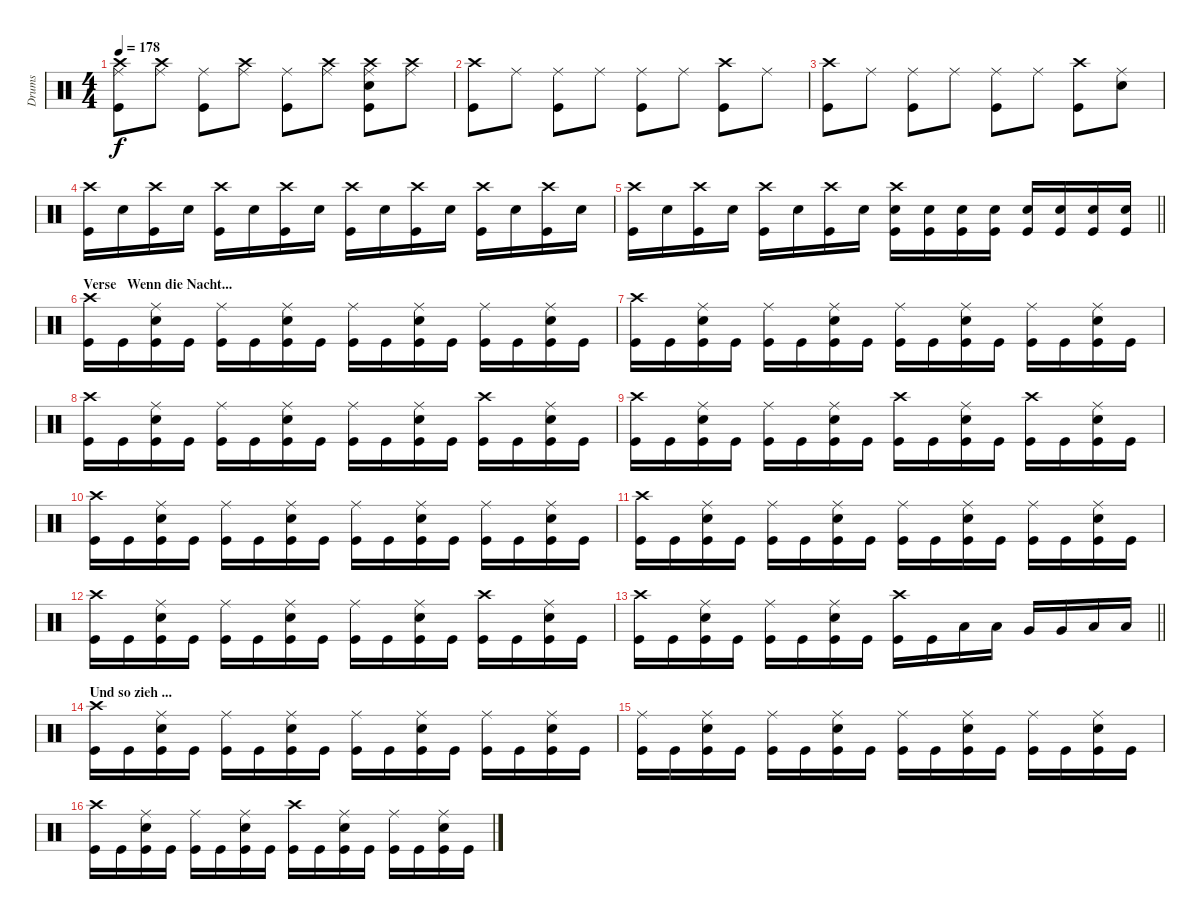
\track ("Drums" "Drums") {instrument percussion}
\staff {score}
\articulation defaults
\ts (4 4)
\tempo 178
\clef neutral
\ks c
("Crash high (hit)" "Kick (hit)" "Ride (middle)").8{dy f} ("Crash high (hit)" "Ride (middle)").8 ("Kick (hit)" "Ride (middle)").8 ("Crash high (hit)" "Ride (middle)").8 ("Kick (hit)" "Ride (middle)").8 ("Ride (middle)" "Crash high (hit)").8 ("Kick (hit)" "Ride (middle)" "Crash high (hit)" "Snare (hit) 2").8 ("Ride (middle)" "Crash high (hit)").8 |
("Kick (hit)" "Crash high (hit)").8 "Ride (middle)".8 ("Kick (hit)" "Ride (middle)").8 "Ride (middle)".8 ("Kick (hit)" "Ride (middle)").8 "Ride (middle)".8 ("Kick (hit)" "Crash high (hit)").8 "Ride (middle)".8 |
("Kick (hit)" "Crash high (hit)").8 "Ride (middle)".8 ("Kick (hit)" "Ride (middle)").8 "Ride (middle)".8 ("Kick (hit)" "Ride (middle)").8 "Ride (middle)".8 ("Kick (hit)" "Crash high (hit)").8 ("Ride (middle)" "Snare (hit) 2").8 |
("Crash high (hit)" "Kick (hit)").16 "Snare (hit) 2".16 ("Crash high (hit)" "Kick (hit)").16 "Snare (hit) 2".16 ("Crash high (hit)" "Kick (hit)").16 "Snare (hit) 2".16 ("Crash high (hit)" "Kick (hit)").16 "Snare (hit) 2".16 ("Crash high (hit)" "Kick (hit)").16 "Snare (hit) 2".16 ("Crash high (hit)" "Kick (hit)").16 "Snare (hit) 2".16 ("Crash high (hit)" "Kick (hit)").16 "Snare (hit) 2".16 ("Crash high (hit)" "Kick (hit)").16 "Snare (hit) 2".16 |
\barLineRight lightlight
("Crash high (hit)" "Kick (hit)").16 "Snare (hit) 2".16 ("Crash high (hit)" "Kick (hit)").16 "Snare (hit) 2".16 ("Crash high (hit)" "Kick (hit)").16 "Snare (hit) 2".16 ("Crash high (hit)" "Kick (hit)").16 "Snare (hit) 2".16 ("Crash high (hit)" "Kick (hit)" "Snare (hit) 2").16 ("Snare (hit) 2" "Kick (hit)").16 ("Snare (hit) 2" "Kick (hit)").16 ("Snare (hit) 2" "Kick (hit)").16 ("Snare (hit) 2" "Kick (hit)").16 ("Snare (hit) 2" "Kick (hit)").16 ("Snare (hit) 2" "Kick (hit)").16 ("Snare (hit) 2" "Kick (hit)").16 |
\section ("" "Verse   Wenn die Nacht...")
("Kick (hit)" "Crash high (hit)").16 "Kick (hit)".16 ("Kick (hit)" "Snare (hit) 2" "Ride (middle)").16 "Kick (hit)".16 ("Kick (hit)" "Ride (middle)").16 "Kick (hit)".16 ("Kick (hit)" "Snare (hit) 2" "Ride (middle)").16 "Kick (hit)".16 ("Kick (hit)" "Ride (middle)").16 "Kick (hit)".16 ("Kick (hit)" "Snare (hit) 2" "Ride (middle)").16 "Kick (hit)".16 ("Kick (hit)" "Ride (middle)").16 "Kick (hit)".16 ("Kick (hit)" "Snare (hit) 2" "Ride (middle)").16 "Kick (hit)".16 |
("Kick (hit)" "Crash high (hit)").16 "Kick (hit)".16 ("Kick (hit)" "Snare (hit) 2" "Ride (middle)").16 "Kick (hit)".16 ("Kick (hit)" "Ride (middle)").16 "Kick (hit)".16 ("Kick (hit)" "Snare (hit) 2" "Ride (middle)").16 "Kick (hit)".16 ("Kick (hit)" "Ride (middle)").16 "Kick (hit)".16 ("Kick (hit)" "Snare (hit) 2" "Ride (middle)").16 "Kick (hit)".16 ("Kick (hit)" "Ride (middle)").16 "Kick (hit)".16 ("Kick (hit)" "Snare (hit) 2" "Ride (middle)").16 "Kick (hit)".16 |
("Kick (hit)" "Crash high (hit)").16 "Kick (hit)".16 ("Kick (hit)" "Snare (hit) 2" "Ride (middle)").16 "Kick (hit)".16 ("Kick (hit)" "Ride (middle)").16 "Kick (hit)".16 ("Kick (hit)" "Snare (hit) 2" "Ride (middle)").16 "Kick (hit)".16 ("Kick (hit)" "Ride (middle)").16 "Kick (hit)".16 ("Kick (hit)" "Snare (hit) 2" "Ride (middle)").16 "Kick (hit)".16 ("Kick (hit)" "Crash high (hit)").16 "Kick (hit)".16 ("Kick (hit)" "Snare (hit) 2" "Ride (middle)").16 "Kick (hit)".16 |
("Kick (hit)" "Crash high (hit)").16 "Kick (hit)".16 ("Kick (hit)" "Snare (hit) 2" "Ride (middle)").16 "Kick (hit)".16 ("Kick (hit)" "Ride (middle)").16 "Kick (hit)".16 ("Kick (hit)" "Snare (hit) 2" "Ride (middle)").16 "Kick (hit)".16 ("Kick (hit)" "Crash high (hit)").16 "Kick (hit)".16 ("Kick (hit)" "Snare (hit) 2" "Ride (middle)").16 "Kick (hit)".16 ("Kick (hit)" "Crash high (hit)").16 "Kick (hit)".16 ("Kick (hit)" "Snare (hit) 2" "Ride (middle)").16 "Kick (hit)".16 |
("Kick (hit)" "Crash high (hit)").16 "Kick (hit)".16 ("Kick (hit)" "Snare (hit) 2" "Ride (middle)").16 "Kick (hit)".16 ("Kick (hit)" "Ride (middle)").16 "Kick (hit)".16 ("Kick (hit)" "Snare (hit) 2" "Ride (middle)").16 "Kick (hit)".16 ("Kick (hit)" "Ride (middle)").16 "Kick (hit)".16 ("Kick (hit)" "Snare (hit) 2" "Ride (middle)").16 "Kick (hit)".16 ("Kick (hit)" "Ride (middle)").16 "Kick (hit)".16 ("Kick (hit)" "Snare (hit) 2" "Ride (middle)").16 "Kick (hit)".16 |
("Kick (hit)" "Crash high (hit)").16 "Kick (hit)".16 ("Kick (hit)" "Snare (hit) 2" "Ride (middle)").16 "Kick (hit)".16 ("Kick (hit)" "Ride (middle)").16 "Kick (hit)".16 ("Kick (hit)" "Snare (hit) 2" "Ride (middle)").16 "Kick (hit)".16 ("Kick (hit)" "Ride (middle)").16 "Kick (hit)".16 ("Kick (hit)" "Snare (hit) 2" "Ride (middle)").16 "Kick (hit)".16 ("Kick (hit)" "Ride (middle)").16 "Kick (hit)".16 ("Kick (hit)" "Snare (hit) 2" "Ride (middle)").16 "Kick (hit)".16 |
("Kick (hit)" "Crash high (hit)").16 "Kick (hit)".16 ("Kick (hit)" "Snare (hit) 2" "Ride (middle)").16 "Kick (hit)".16 ("Kick (hit)" "Ride (middle)").16 "Kick (hit)".16 ("Kick (hit)" "Snare (hit) 2" "Ride (middle)").16 "Kick (hit)".16 ("Kick (hit)" "Ride (middle)").16 "Kick (hit)".16 ("Kick (hit)" "Snare (hit) 2" "Ride (middle)").16 "Kick (hit)".16 ("Kick (hit)" "Crash high (hit)").16 "Kick (hit)".16 ("Kick (hit)" "Snare (hit) 2" "Ride (middle)").16 "Kick (hit)".16 |
\barLineRight lightlight
("Kick (hit)" "Crash high (hit)").16 "Kick (hit)".16 ("Kick (hit)" "Snare (hit) 2" "Ride (middle)").16 "Kick (hit)".16 ("Kick (hit)" "Ride (middle)").16 "Kick (hit)".16 ("Kick (hit)" "Snare (hit) 2" "Ride (middle)").16 "Kick (hit)".16 ("Kick (hit)" "Crash high (hit)").16 "Kick (hit)".16 "Low Tom (hit)".16 "Low Tom (hit)".16 "Very Low Tom (hit)".16 "Very Low Tom (hit)".16 "Low Floor Tom (hit)".16 "Low Floor Tom (hit)".16 |
\section ("" "Und so zieh ...")
("Kick (hit)" "Crash high (hit)").16 "Kick (hit)".16 ("Kick (hit)" "Snare (hit) 2" "Ride (middle)").16 "Kick (hit)".16 ("Kick (hit)" "Ride (middle)").16 "Kick (hit)".16 ("Kick (hit)" "Snare (hit) 2" "Ride (middle)").16 "Kick (hit)".16 ("Kick (hit)" "Ride (middle)").16 "Kick (hit)".16 ("Kick (hit)" "Snare (hit) 2" "Ride (middle)").16 "Kick (hit)".16 ("Kick (hit)" "Ride (middle)").16 "Kick (hit)".16 ("Kick (hit)" "Snare (hit) 2" "Ride (middle)").16 "Kick (hit)".16 |
("Kick (hit)" "Ride (middle)").16 "Kick (hit)".16 ("Kick (hit)" "Snare (hit) 2" "Ride (middle)").16 "Kick (hit)".16 ("Kick (hit)" "Ride (middle)").16 "Kick (hit)".16 ("Kick (hit)" "Snare (hit) 2" "Ride (middle)").16 "Kick (hit)".16 ("Kick (hit)" "Ride (middle)").16 "Kick (hit)".16 ("Kick (hit)" "Snare (hit) 2" "Ride (middle)").16 "Kick (hit)".16 ("Kick (hit)" "Ride (middle)").16 "Kick (hit)".16 ("Kick (hit)" "Snare (hit) 2" "Ride (middle)").16 "Kick (hit)".16 |
("Kick (hit)" "Crash high (hit)").16 "Kick (hit)".16 ("Kick (hit)" "Snare (hit) 2" "Ride (middle)").16 "Kick (hit)".16 ("Kick (hit)" "Ride (middle)").16 "Kick (hit)".16 ("Kick (hit)" "Snare (hit) 2" "Ride (middle)").16 "Kick (hit)".16 ("Kick (hit)" "Crash high (hit)").16 "Kick (hit)".16 ("Kick (hit)" "Snare (hit) 2" "Ride (middle)").16 "Kick (hit)".16 ("Kick (hit)" "Ride (middle)").16 "Kick (hit)".16 ("Kick (hit)" "Snare (hit) 2" "Ride (middle)").16 "Kick (hit)".16
